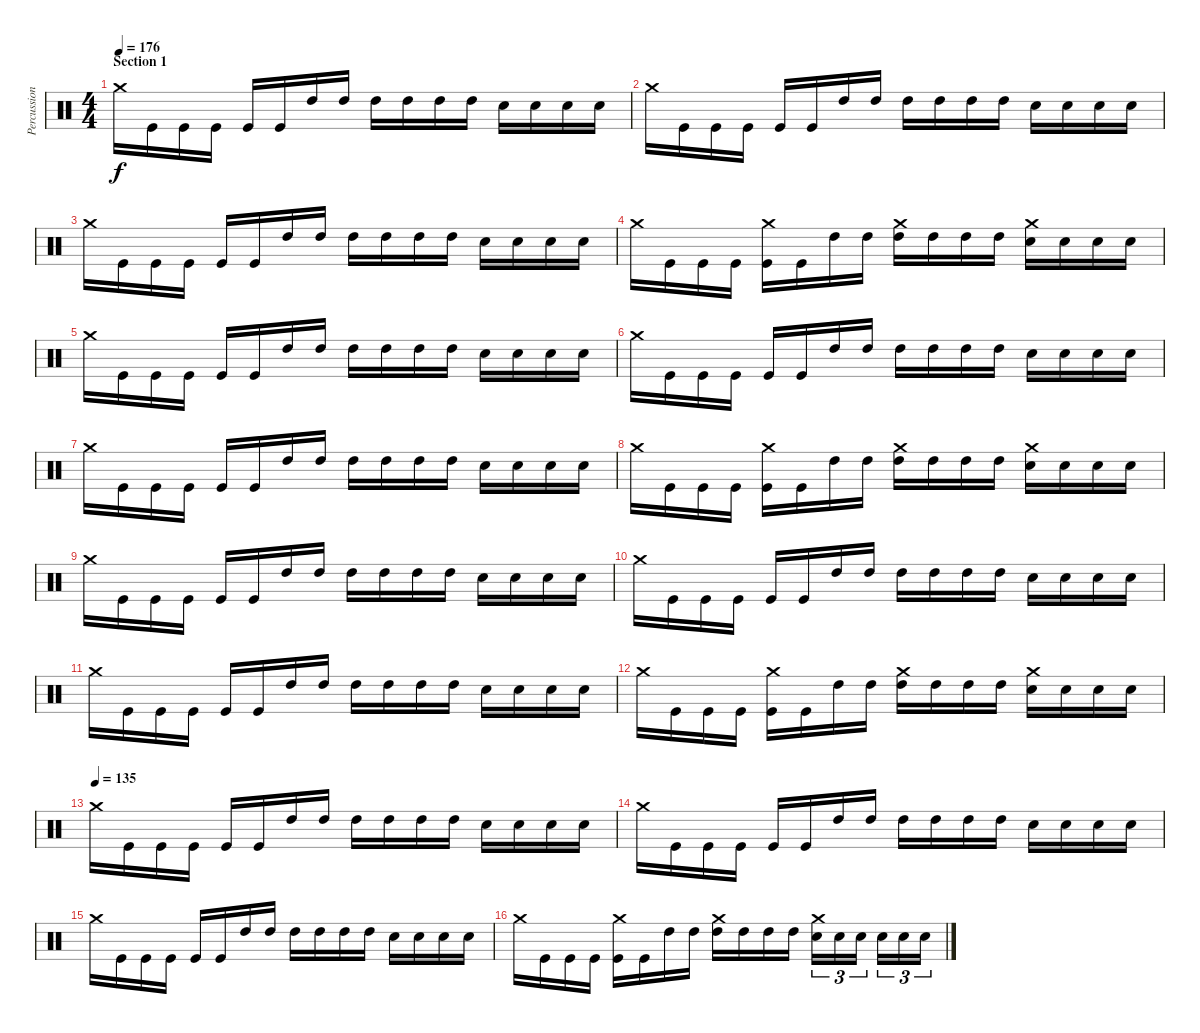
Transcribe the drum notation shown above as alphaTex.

\track ("Percussions" "Percussion") {instrument percussion}
\staff {score}
\articulation defaults
\ts (4 4)
\section ("" "Section 1")
\tempo 176
\tempo 135
\tempo 176
\clef neutral
\ks c "Crash medium (hit)".16{dy f} "Kick (hit)".16 "Kick (hit)".16 "Kick (hit)".16 "Kick (hit)".16 "Kick (hit)".16 "High Tom (hit)".16 "High Tom (hit)".16 "High Tom (hit)".16 "High Tom (hit)".16 "High Tom (hit)".16 "High Tom (hit)".16 "Electric Snare (hit)".16 "Electric Snare (hit)".16 "Electric Snare (hit)".16 "Electric Snare (hit)".16
|
"Crash medium (hit)".16 "Kick (hit)".16 "Kick (hit)".16 "Kick (hit)".16 "Kick (hit)".16 "Kick (hit)".16 "High Tom (hit)".16 "High Tom (hit)".16 "High Tom (hit)".16 "High Tom (hit)".16 "High Tom (hit)".16 "High Tom (hit)".16 "Electric Snare (hit)".16 "Electric Snare (hit)".16 "Electric Snare (hit)".16 "Electric Snare (hit)".16 |
"Crash medium (hit)".16 "Kick (hit)".16 "Kick (hit)".16 "Kick (hit)".16 "Kick (hit)".16 "Kick (hit)".16 "High Tom (hit)".16 "High Tom (hit)".16 "High Tom (hit)".16 "High Tom (hit)".16 "High Tom (hit)".16 "High Tom (hit)".16 "Electric Snare (hit)".16 "Electric Snare (hit)".16 "Electric Snare (hit)".16 "Electric Snare (hit)".16 |
"Crash medium (hit)".16 "Kick (hit)".16 "Kick (hit)".16 "Kick (hit)".16 ("Crash medium (hit)" "Kick (hit)").16 "Kick (hit)".16 "High Tom (hit)".16 "High Tom (hit)".16 ("Crash medium (hit)" "High Tom (hit)").16 "High Tom (hit)".16 "High Tom (hit)".16 "High Tom (hit)".16 ("Crash medium (hit)" "Electric Snare (hit)").16 "Electric Snare (hit)".16 "Electric Snare (hit)".16 "Electric Snare (hit)".16 |
"Crash medium (hit)".16 "Kick (hit)".16 "Kick (hit)".16 "Kick (hit)".16 "Kick (hit)".16 "Kick (hit)".16 "High Tom (hit)".16 "High Tom (hit)".16 "High Tom (hit)".16 "High Tom (hit)".16 "High Tom (hit)".16 "High Tom (hit)".16 "Electric Snare (hit)".16 "Electric Snare (hit)".16 "Electric Snare (hit)".16 "Electric Snare (hit)".16 |
"Crash medium (hit)".16 "Kick (hit)".16 "Kick (hit)".16 "Kick (hit)".16 "Kick (hit)".16 "Kick (hit)".16 "High Tom (hit)".16 "High Tom (hit)".16 "High Tom (hit)".16 "High Tom (hit)".16 "High Tom (hit)".16 "High Tom (hit)".16 "Electric Snare (hit)".16 "Electric Snare (hit)".16 "Electric Snare (hit)".16 "Electric Snare (hit)".16 |
"Crash medium (hit)".16 "Kick (hit)".16 "Kick (hit)".16 "Kick (hit)".16 "Kick (hit)".16 "Kick (hit)".16 "High Tom (hit)".16 "High Tom (hit)".16 "High Tom (hit)".16 "High Tom (hit)".16 "High Tom (hit)".16 "High Tom (hit)".16 "Electric Snare (hit)".16 "Electric Snare (hit)".16 "Electric Snare (hit)".16 "Electric Snare (hit)".16 |
"Crash medium (hit)".16 "Kick (hit)".16 "Kick (hit)".16 "Kick (hit)".16 ("Crash medium (hit)" "Kick (hit)").16 "Kick (hit)".16 "High Tom (hit)".16 "High Tom (hit)".16 ("Crash medium (hit)" "High Tom (hit)").16 "High Tom (hit)".16 "High Tom (hit)".16 "High Tom (hit)".16 ("Crash medium (hit)" "Electric Snare (hit)").16 "Electric Snare (hit)".16 "Electric Snare (hit)".16 "Electric Snare (hit)".16 |
"Crash medium (hit)".16 "Kick (hit)".16 "Kick (hit)".16 "Kick (hit)".16 "Kick (hit)".16 "Kick (hit)".16 "High Tom (hit)".16 "High Tom (hit)".16 "High Tom (hit)".16 "High Tom (hit)".16 "High Tom (hit)".16 "High Tom (hit)".16 "Electric Snare (hit)".16 "Electric Snare (hit)".16 "Electric Snare (hit)".16 "Electric Snare (hit)".16 |
"Crash medium (hit)".16 "Kick (hit)".16 "Kick (hit)".16 "Kick (hit)".16 "Kick (hit)".16 "Kick (hit)".16 "High Tom (hit)".16 "High Tom (hit)".16 "High Tom (hit)".16 "High Tom (hit)".16 "High Tom (hit)".16 "High Tom (hit)".16 "Electric Snare (hit)".16 "Electric Snare (hit)".16 "Electric Snare (hit)".16 "Electric Snare (hit)".16 |
"Crash medium (hit)".16 "Kick (hit)".16 "Kick (hit)".16 "Kick (hit)".16 "Kick (hit)".16 "Kick (hit)".16 "High Tom (hit)".16 "High Tom (hit)".16 "High Tom (hit)".16 "High Tom (hit)".16 "High Tom (hit)".16 "High Tom (hit)".16 "Electric Snare (hit)".16 "Electric Snare (hit)".16 "Electric Snare (hit)".16 "Electric Snare (hit)".16 |
"Crash medium (hit)".16 "Kick (hit)".16 "Kick (hit)".16 "Kick (hit)".16 ("Crash medium (hit)" "Kick (hit)").16 "Kick (hit)".16 "High Tom (hit)".16 "High Tom (hit)".16 ("Crash medium (hit)" "High Tom (hit)").16 "High Tom (hit)".16 "High Tom (hit)".16 "High Tom (hit)".16 ("Crash medium (hit)" "Electric Snare (hit)").16 "Electric Snare (hit)".16 "Electric Snare (hit)".16 "Electric Snare (hit)".16 |
\tempo (135)
"Crash medium (hit)".16 "Kick (hit)".16 "Kick (hit)".16 "Kick (hit)".16 "Kick (hit)".16 "Kick (hit)".16 "High Tom (hit)".16 "High Tom (hit)".16 "High Tom (hit)".16 "High Tom (hit)".16 "High Tom (hit)".16 "High Tom (hit)".16 "Electric Snare (hit)".16 "Electric Snare (hit)".16 "Electric Snare (hit)".16 "Electric Snare (hit)".16 |
"Crash medium (hit)".16 "Kick (hit)".16 "Kick (hit)".16 "Kick (hit)".16 "Kick (hit)".16 "Kick (hit)".16 "High Tom (hit)".16 "High Tom (hit)".16 "High Tom (hit)".16 "High Tom (hit)".16 "High Tom (hit)".16 "High Tom (hit)".16 "Electric Snare (hit)".16 "Electric Snare (hit)".16 "Electric Snare (hit)".16 "Electric Snare (hit)".16 |
"Crash medium (hit)".16 "Kick (hit)".16 "Kick (hit)".16 "Kick (hit)".16 "Kick (hit)".16 "Kick (hit)".16 "High Tom (hit)".16 "High Tom (hit)".16 "High Tom (hit)".16 "High Tom (hit)".16 "High Tom (hit)".16 "High Tom (hit)".16 "Electric Snare (hit)".16 "Electric Snare (hit)".16 "Electric Snare (hit)".16 "Electric Snare (hit)".16 |
"Crash medium (hit)".16 "Kick (hit)".16 "Kick (hit)".16 "Kick (hit)".16 ("Crash medium (hit)" "Kick (hit)").16 "Kick (hit)".16 "High Tom (hit)".16 "High Tom (hit)".16 ("Crash medium (hit)" "High Tom (hit)").16 "High Tom (hit)".16 "High Tom (hit)".16 "High Tom (hit)".16 ("Crash medium (hit)" "Electric Snare (hit)").16{tu (3 2)} "Electric Snare (hit)".16{tu (3 2)} "Electric Snare (hit)".16{tu (3 2)} "Electric Snare (hit)".16{tu (3 2)} "Electric Snare (hit)".16{tu (3 2)} "Electric Snare (hit)".16{tu (3 2)}
